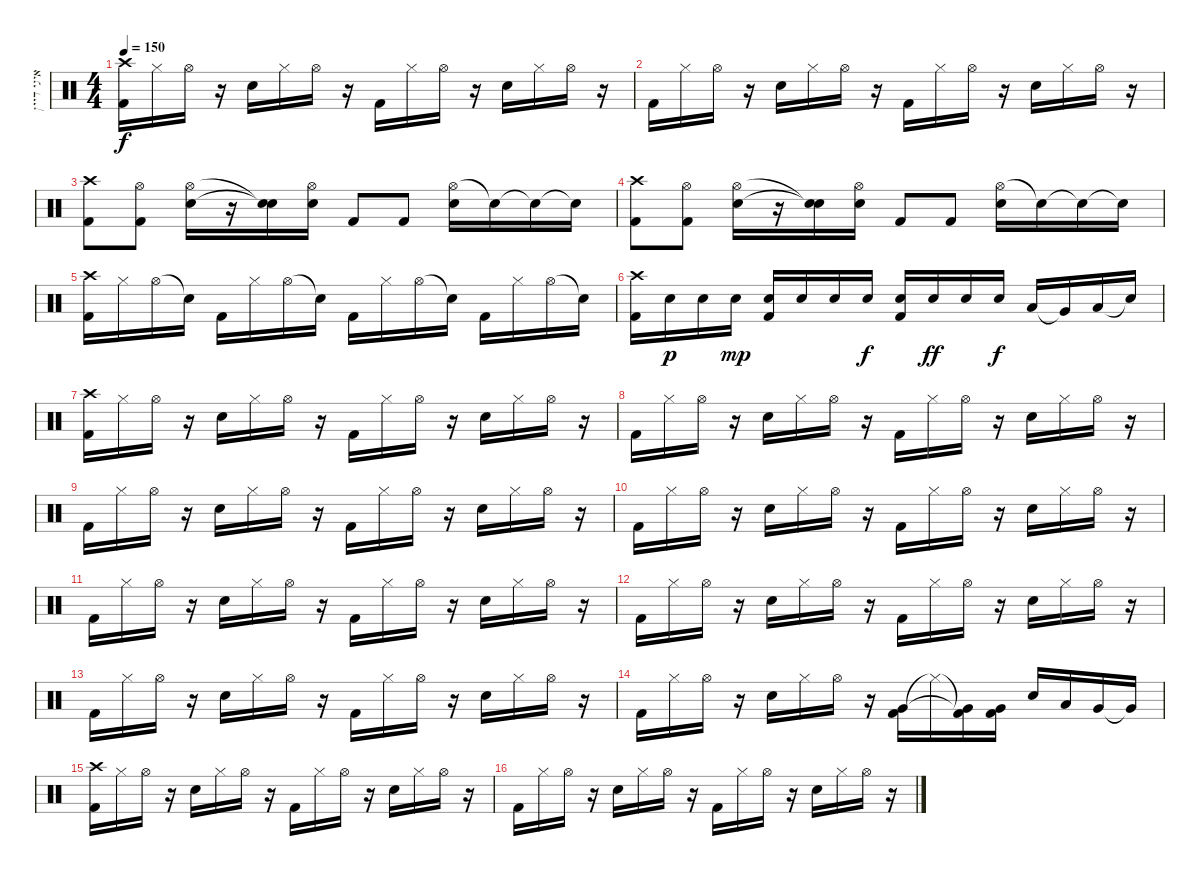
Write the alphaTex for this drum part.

\track ("איגי דיין" "איגי דיין") {instrument percussion}
\staff {score}
\articulation defaults
\ts (4 4)
\tempo 150
\clef neutral
\ks c
("Crash high (hit)" "Kick (hit) 2").16{dy f} "Hi-Hat (closed)".16 "Hi-Hat (open)".16 r.16 "Electric Snare (hit)".16 "Hi-Hat (closed)".16 "Hi-Hat (open)".16 r.16 "Kick (hit) 2".16 "Hi-Hat (closed)".16 "Hi-Hat (open)".16 r.16 "Electric Snare (hit)".16 "Hi-Hat (closed)".16 "Hi-Hat (open)".16 r.16 |
"Kick (hit) 2".16 "Hi-Hat (closed)".16 "Hi-Hat (open)".16 r.16 "Electric Snare (hit)".16 "Hi-Hat (closed)".16 "Hi-Hat (open)".16 r.16 "Kick (hit) 2".16 "Hi-Hat (closed)".16 "Hi-Hat (open)".16 r.16 "Electric Snare (hit)".16 "Hi-Hat (closed)".16 "Hi-Hat (open)".16 r.16 |
("Crash high (hit)" "Kick (hit) 2").8 ("Hi-Hat (open)" "Kick (hit) 2").8 ("Hi-Hat (open)" "Electric Snare (hit)").16 r.16 ("Snare (hit)"{t} "Snare (hit)"{t}).16 ("Hi-Hat (open)" "Electric Snare (hit)").16 "Kick (hit) 2".8 "Kick (hit) 2".8 ("Hi-Hat (open)" "Electric Snare (hit)").16 "Snare (hit)"{t}.16 "Snare (hit)"{t}.16 "Snare (hit)"{t}.16 |
("Crash high (hit)" "Kick (hit) 2").8 ("Hi-Hat (open)" "Kick (hit) 2").8 ("Hi-Hat (open)" "Electric Snare (hit)").16 r.16 ("Snare (hit)"{t} "Snare (hit)"{t}).16 ("Hi-Hat (open)" "Electric Snare (hit)").16 "Kick (hit) 2".8 "Kick (hit) 2".8 ("Hi-Hat (open)" "Electric Snare (hit)").16 "Snare (hit)"{t}.16 "Snare (hit)"{t}.16 "Snare (hit)"{t}.16 |
("Crash high (hit)" "Kick (hit) 2").16 "Hi-Hat (closed)".16 "Hi-Hat (open)".16 "Snare (hit)"{t}.16 "Kick (hit) 2".16 "Hi-Hat (closed)".16 "Hi-Hat (open)".16 "Snare (hit)"{t}.16 "Kick (hit) 2".16 "Hi-Hat (closed)".16 "Hi-Hat (open)".16 "Snare (hit)"{t}.16 "Kick (hit) 2".16 "Hi-Hat (closed)".16 "Hi-Hat (open)".16 "Snare (hit)"{t}.16 |
("Crash high (hit)" "Kick (hit) 2").16 "Electric Snare (hit)".16{dy p} "Electric Snare (hit)".16 "Electric Snare (hit)".16{dy mp} ("Electric Snare (hit)" "Kick (hit) 2").16 "Electric Snare (hit)".16 "Electric Snare (hit)".16 "Electric Snare (hit)".16{dy f} ("Electric Snare (hit)" "Kick (hit) 2").16 "Electric Snare (hit)".16{dy ff} "Electric Snare (hit)".16 "Electric Snare (hit)".16{dy f} "Low Tom (hit)".16 "Very Low Tom (hit)"{t}.16 "Low Floor Tom (hit)".16 "Snare (hit)"{t}.16 |
("Crash high (hit)" "Kick (hit) 2").16 "Hi-Hat (closed)".16 "Hi-Hat (open)".16 r.16 "Electric Snare (hit)".16 "Hi-Hat (closed)".16 "Hi-Hat (open)".16 r.16 "Kick (hit) 2".16 "Hi-Hat (closed)".16 "Hi-Hat (open)".16 r.16 "Electric Snare (hit)".16 "Hi-Hat (closed)".16 "Hi-Hat (open)".16 r.16 |
"Kick (hit) 2".16 "Hi-Hat (closed)".16 "Hi-Hat (open)".16 r.16 "Electric Snare (hit)".16 "Hi-Hat (closed)".16 "Hi-Hat (open)".16 r.16 "Kick (hit) 2".16 "Hi-Hat (closed)".16 "Hi-Hat (open)".16 r.16 "Electric Snare (hit)".16 "Hi-Hat (closed)".16 "Hi-Hat (open)".16 r.16 |
"Kick (hit) 2".16 "Hi-Hat (closed)".16 "Hi-Hat (open)".16 r.16 "Electric Snare (hit)".16 "Hi-Hat (closed)".16 "Hi-Hat (open)".16 r.16 "Kick (hit) 2".16 "Hi-Hat (closed)".16 "Hi-Hat (open)".16 r.16 "Electric Snare (hit)".16 "Hi-Hat (closed)".16 "Hi-Hat (open)".16 r.16 |
"Kick (hit) 2".16 "Hi-Hat (closed)".16 "Hi-Hat (open)".16 r.16 "Electric Snare (hit)".16 "Hi-Hat (closed)".16 "Hi-Hat (open)".16 r.16 "Kick (hit) 2".16 "Hi-Hat (closed)".16 "Hi-Hat (open)".16 r.16 "Electric Snare (hit)".16 "Hi-Hat (closed)".16 "Hi-Hat (open)".16 r.16 |
"Kick (hit) 2".16 "Hi-Hat (closed)".16 "Hi-Hat (open)".16 r.16 "Electric Snare (hit)".16 "Hi-Hat (closed)".16 "Hi-Hat (open)".16 r.16 "Kick (hit) 2".16 "Hi-Hat (closed)".16 "Hi-Hat (open)".16 r.16 "Electric Snare (hit)".16 "Hi-Hat (closed)".16 "Hi-Hat (open)".16 r.16 |
"Kick (hit) 2".16 "Hi-Hat (closed)".16 "Hi-Hat (open)".16 r.16 "Electric Snare (hit)".16 "Hi-Hat (closed)".16 "Hi-Hat (open)".16 r.16 "Kick (hit) 2".16 "Hi-Hat (closed)".16 "Hi-Hat (open)".16 r.16 "Electric Snare (hit)".16 "Hi-Hat (closed)".16 "Hi-Hat (open)".16 r.16 |
"Kick (hit) 2".16 "Hi-Hat (closed)".16 "Hi-Hat (open)".16 r.16 "Electric Snare (hit)".16 "Hi-Hat (closed)".16 "Hi-Hat (open)".16 r.16 "Kick (hit) 2".16 "Hi-Hat (closed)".16 "Hi-Hat (open)".16 r.16 "Electric Snare (hit)".16 "Hi-Hat (closed)".16 "Hi-Hat (open)".16 r.16 |
"Kick (hit) 2".16 "Hi-Hat (closed)".16 "Hi-Hat (open)".16 r.16 "Electric Snare (hit)".16 "Hi-Hat (closed)".16 "Hi-Hat (open)".16 r.16 ("Kick (hit) 2" "Very Low Tom (hit)").16 "Hi-Hat (closed)"{t}.16 ("Kick (hit) 2"{t} "Very Low Tom (hit)"{t}).16 ("Kick (hit) 2" "Very Low Tom (hit)").16 "Electric Snare (hit)".16 "Low Tom (hit)".16 "Very Low Tom (hit)".16 "Very Low Tom (hit)"{t}.16 |
("Crash high (hit)" "Kick (hit) 2").16 "Hi-Hat (closed)".16 "Hi-Hat (open)".16 r.16 "Electric Snare (hit)".16 "Hi-Hat (closed)".16 "Hi-Hat (open)".16 r.16 "Kick (hit) 2".16 "Hi-Hat (closed)".16 "Hi-Hat (open)".16 r.16 "Electric Snare (hit)".16 "Hi-Hat (closed)".16 "Hi-Hat (open)".16 r.16 |
"Kick (hit) 2".16 "Hi-Hat (closed)".16 "Hi-Hat (open)".16 r.16 "Electric Snare (hit)".16 "Hi-Hat (closed)".16 "Hi-Hat (open)".16 r.16 "Kick (hit) 2".16 "Hi-Hat (closed)".16 "Hi-Hat (open)".16 r.16 "Electric Snare (hit)".16 "Hi-Hat (closed)".16 "Hi-Hat (open)".16 r.16
